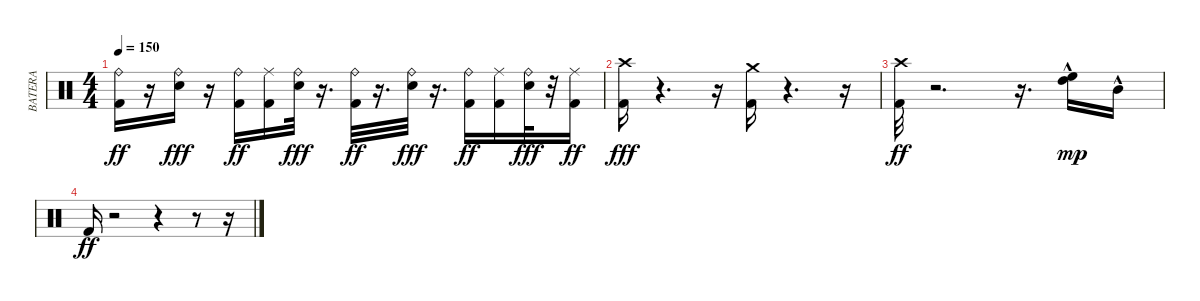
\track ("BATERA" "BATERA") {instrument percussion}
\staff {score}
\articulation defaults
\ts (4 4)
\tempo 150
\clef neutral
\ks c
("Ride (bell)" "Kick (hit) 2").16{dy ff} r.16 ("Electric Snare (hit)" "Ride (bell)").16{dy fff} r.16 ("Ride (bell)" "Kick (hit) 2").16{dy ff} ("Ride (middle)" "Kick (hit) 2").16 ("Electric Snare (hit)" "Ride (bell)").32{dy fff} r.16{d} ("Ride (bell)" "Kick (hit) 2").32{dy ff} r.16{d} ("Electric Snare (hit)" "Ride (bell)").32{dy fff} r.16{d} ("Ride (bell)" "Kick (hit) 2").16{dy ff} ("Kick (hit) 2" "Ride (middle)").16 ("Ride (bell)" "Electric Snare (hit)").32{dy fff} r.32 ("Kick (hit) 2" "Ride (middle)").16{dy ff} |
("Crash high (hit)" "Kick (hit) 2").16{dy fff} r.4{d} r.16 ("Kick (hit) 2" "Crash medium (hit)").16 r.4{d} r.16 |
("Crash high (hit)" "Kick (hit) 2").32{dy ff} r.2{d} r.16{d} ("High Floor Tom (hit)"{hac} "High Tom (hit)"{hac}).16{dy mp} "Mid Tom (hit)"{hac}.16 |
"Kick (hit) 2".16{dy ff} r.2 r.4 r.8 r.16
